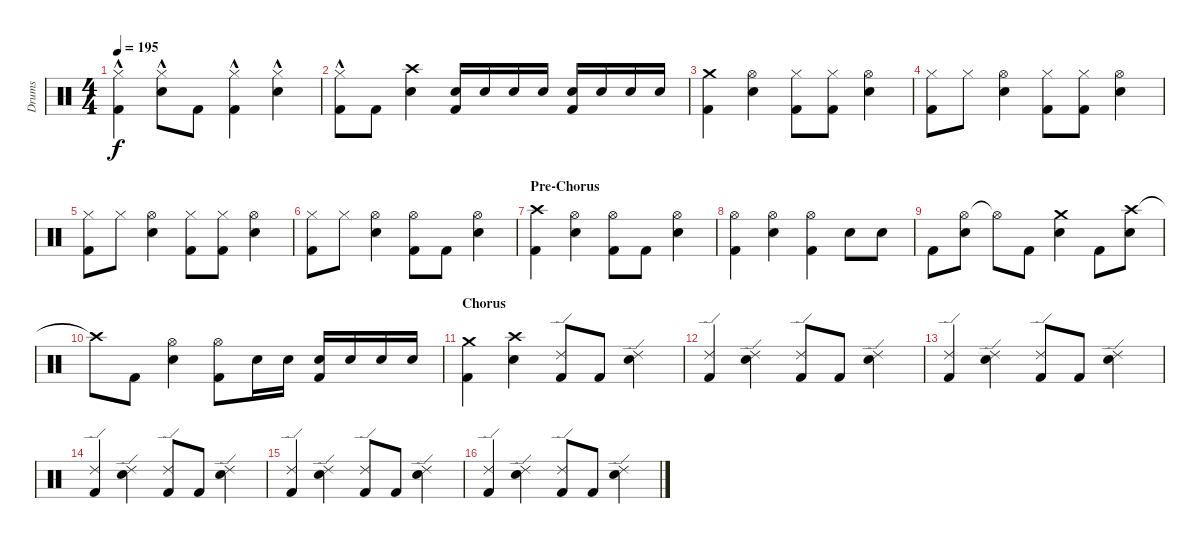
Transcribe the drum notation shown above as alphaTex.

\track ("Drums" "Drums") {instrument percussion}
\staff {score}
\articulation defaults
\ts (4 4)
\tempo 195
\clef neutral
\ks c
("Hi-Hat (closed)"{hac} "Kick (hit) 2").4{dy f} ("Hi-Hat (closed)"{hac} "Snare (hit) 2").8 "Kick (hit) 2".8 ("Hi-Hat (closed)"{hac} "Kick (hit) 2").4 ("Hi-Hat (closed)"{hac} "Snare (hit) 2").4 |
("Hi-Hat (closed)"{hac} "Kick (hit) 2").8 "Kick (hit) 2".8 ("Crash high (hit)" "Snare (hit) 2").4 ("Snare (hit) 2" "Kick (hit) 2").16 "Snare (hit) 2".16 "Snare (hit) 2".16 "Snare (hit) 2".16 ("Snare (hit) 2" "Kick (hit) 2").16 "Snare (hit) 2".16 "Snare (hit) 2".16 "Snare (hit) 2".16 |
("Crash medium (hit)" "Kick (hit) 2").4 ("Hi-Hat (open)" "Snare (hit) 2").4 ("Hi-Hat (closed)" "Kick (hit) 2").8 ("Hi-Hat (closed)" "Kick (hit) 2").8 ("Hi-Hat (open)" "Snare (hit) 2").4 |
("Hi-Hat (closed)" "Kick (hit) 2").8 "Hi-Hat (closed)".8 ("Hi-Hat (open)" "Snare (hit) 2").4 ("Hi-Hat (closed)" "Kick (hit) 2").8 ("Hi-Hat (closed)" "Kick (hit) 2").8 ("Hi-Hat (open)" "Snare (hit) 2").4 |
("Hi-Hat (closed)" "Kick (hit) 2").8 "Hi-Hat (closed)".8 ("Hi-Hat (open)" "Snare (hit) 2").4 ("Hi-Hat (closed)" "Kick (hit) 2").8 ("Hi-Hat (closed)" "Kick (hit) 2").8 ("Hi-Hat (open)" "Snare (hit) 2").4 |
("Hi-Hat (closed)" "Kick (hit) 2").8 "Hi-Hat (closed)".8 ("Hi-Hat (open)" "Snare (hit) 2").4 ("Hi-Hat (open)" "Kick (hit) 2").8 "Kick (hit) 2".8 ("Hi-Hat (open)" "Snare (hit) 2").4 |
\section ("" "Pre-Chorus")
("Crash high (hit)" "Kick (hit) 2").4 ("Hi-Hat (open)" "Snare (hit) 2").4 ("Hi-Hat (open)" "Kick (hit) 2").8 "Kick (hit) 2".8 ("Hi-Hat (open)" "Snare (hit) 2").4 |
("Hi-Hat (open)" "Kick (hit) 2").4 ("Hi-Hat (open)" "Snare (hit) 2").4 ("Hi-Hat (open)" "Kick (hit) 2").4 "Snare (hit) 2".8 "Snare (hit) 2".8 |
"Kick (hit) 2".8 ("Hi-Hat (open)" "Snare (hit) 2").8 "Hi-Hat (open)"{t}.8 "Kick (hit) 2".8 ("Crash medium (hit)" "Snare (hit) 2").4 "Kick (hit) 2".8 ("Crash high (hit)" "Snare (hit) 2").8 |
"Crash high (hit)"{t}.8 "Kick (hit) 2".8 ("Hi-Hat (open)" "Snare (hit) 2").4 ("Hi-Hat (open)" "Kick (hit) 2").8 "Snare (hit) 2".16 "Snare (hit) 2".16 ("Snare (hit) 2" "Kick (hit) 2").16 "Snare (hit) 2".16 "Snare (hit) 2".16 "Snare (hit) 2".16 |
\section ("" "Chorus")
("Crash medium (hit)" "Kick (hit) 2").4 ("Crash high (hit)" "Snare (hit) 2").4 ("Ride (edge) 2" "Kick (hit) 2").8 "Kick (hit) 2".8 ("Ride (edge) 2" "Snare (hit) 2").4 |
("Ride (edge) 2" "Kick (hit) 2").4 ("Ride (edge) 2" "Snare (hit) 2").4 ("Ride (edge) 2" "Kick (hit) 2").8 "Kick (hit) 2".8 ("Ride (edge) 2" "Snare (hit) 2").4 |
("Ride (edge) 2" "Kick (hit) 2").4 ("Ride (edge) 2" "Snare (hit) 2").4 ("Ride (edge) 2" "Kick (hit) 2").8 "Kick (hit) 2".8 ("Ride (edge) 2" "Snare (hit) 2").4 |
("Ride (edge) 2" "Kick (hit) 2").4 ("Ride (edge) 2" "Snare (hit) 2").4 ("Ride (edge) 2" "Kick (hit) 2").8 "Kick (hit) 2".8 ("Ride (edge) 2" "Snare (hit) 2").4 |
("Ride (edge) 2" "Kick (hit) 2").4 ("Ride (edge) 2" "Snare (hit) 2").4 ("Ride (edge) 2" "Kick (hit) 2").8 "Kick (hit) 2".8 ("Ride (edge) 2" "Snare (hit) 2").4 |
("Ride (edge) 2" "Kick (hit) 2").4 ("Ride (edge) 2" "Snare (hit) 2").4 ("Ride (edge) 2" "Kick (hit) 2").8 "Kick (hit) 2".8 ("Ride (edge) 2" "Snare (hit) 2").4
